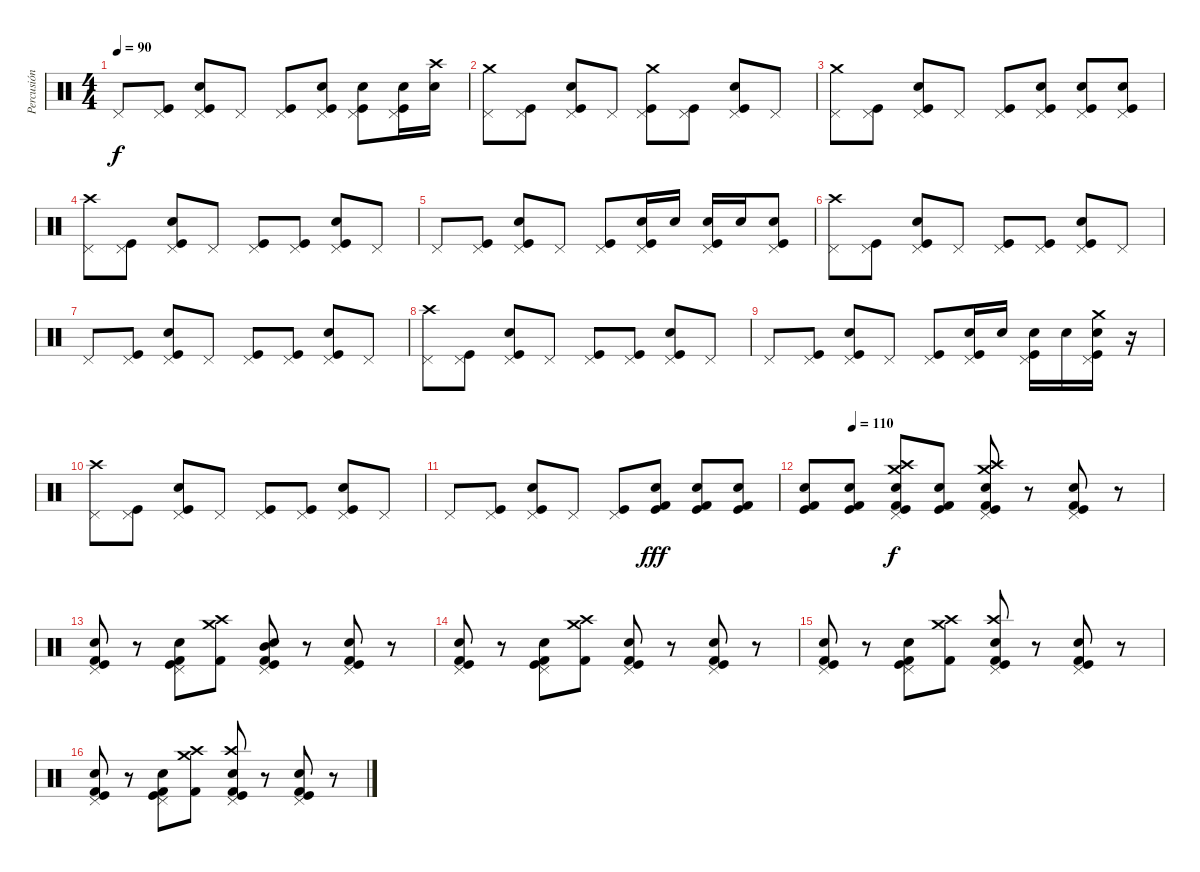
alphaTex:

\track ("Percusión" "Percusión") {instrument percussion}
\staff {score}
\articulation defaults
\ts (4 4)
\tempo 90
\clef neutral
\ks c "Pedal Hi-Hat (hit)".8{dy f}
("Pedal Hi-Hat (hit)" "Kick (hit)").8 ("Pedal Hi-Hat (hit)" "Kick (hit)" "Snare (hit) 2").8 "Pedal Hi-Hat (hit)".8 ("Pedal Hi-Hat (hit)" "Kick (hit)").8 ("Pedal Hi-Hat (hit)" "Kick (hit)" "Snare (hit) 2").8 ("Pedal Hi-Hat (hit)" "Kick (hit)" "Snare (hit) 2").8 ("Pedal Hi-Hat (hit)" "Kick (hit)" "Snare (hit) 2").16 ("Crash high (hit)" "Snare (hit) 2").16{balance 4} |
("Pedal Hi-Hat (hit)" "Crash medium (hit)").8{balance 12} ("Pedal Hi-Hat (hit)" "Kick (hit)").8{balance 8} ("Pedal Hi-Hat (hit)" "Kick (hit)" "Snare (hit) 2").8 "Pedal Hi-Hat (hit)".8 ("Pedal Hi-Hat (hit)" "Kick (hit)" "Crash medium (hit)").8{balance 4} ("Pedal Hi-Hat (hit)" "Kick (hit)").8{balance 8} ("Pedal Hi-Hat (hit)" "Kick (hit)" "Snare (hit) 2").8 "Pedal Hi-Hat (hit)".8 |
("Pedal Hi-Hat (hit)" "Crash medium (hit)").8{balance 12} ("Pedal Hi-Hat (hit)" "Kick (hit)").8{balance 8} ("Pedal Hi-Hat (hit)" "Kick (hit)" "Snare (hit) 2").8 "Pedal Hi-Hat (hit)".8 ("Pedal Hi-Hat (hit)" "Kick (hit)").8 ("Pedal Hi-Hat (hit)" "Kick (hit)" "Snare (hit) 2").8 ("Pedal Hi-Hat (hit)" "Kick (hit)" "Snare (hit) 2").8 ("Pedal Hi-Hat (hit)" "Kick (hit)" "Snare (hit) 2").8 |
("Pedal Hi-Hat (hit)" "Crash high (hit)").8{balance 4} ("Pedal Hi-Hat (hit)" "Kick (hit)").8{balance 8} ("Pedal Hi-Hat (hit)" "Kick (hit)" "Snare (hit) 2").8 "Pedal Hi-Hat (hit)".8 ("Pedal Hi-Hat (hit)" "Kick (hit)").8 ("Pedal Hi-Hat (hit)" "Kick (hit)").8 ("Pedal Hi-Hat (hit)" "Kick (hit)" "Snare (hit) 2").8 "Pedal Hi-Hat (hit)".8 |
"Pedal Hi-Hat (hit)".8 ("Pedal Hi-Hat (hit)" "Kick (hit)").8 ("Pedal Hi-Hat (hit)" "Kick (hit)" "Snare (hit) 2").8 "Pedal Hi-Hat (hit)".8 ("Pedal Hi-Hat (hit)" "Kick (hit)").8 ("Pedal Hi-Hat (hit)" "Kick (hit)" "Snare (hit) 2").16 "Snare (hit) 2".16 ("Pedal Hi-Hat (hit)" "Kick (hit)" "Snare (hit) 2").16 "Snare (hit) 2".16 ("Pedal Hi-Hat (hit)" "Kick (hit)" "Snare (hit) 2").8 |
("Pedal Hi-Hat (hit)" "Crash high (hit)").8{balance 12} ("Pedal Hi-Hat (hit)" "Kick (hit)").8{balance 8} ("Pedal Hi-Hat (hit)" "Kick (hit)" "Snare (hit) 2").8 "Pedal Hi-Hat (hit)".8 ("Pedal Hi-Hat (hit)" "Kick (hit)").8 ("Pedal Hi-Hat (hit)" "Kick (hit)").8 ("Pedal Hi-Hat (hit)" "Kick (hit)" "Snare (hit) 2").8 "Pedal Hi-Hat (hit)".8 |
"Pedal Hi-Hat (hit)".8 ("Pedal Hi-Hat (hit)" "Kick (hit)").8 ("Pedal Hi-Hat (hit)" "Kick (hit)" "Snare (hit) 2").8 "Pedal Hi-Hat (hit)".8 ("Pedal Hi-Hat (hit)" "Kick (hit)").8 ("Pedal Hi-Hat (hit)" "Kick (hit)").8 ("Pedal Hi-Hat (hit)" "Kick (hit)" "Snare (hit) 2").8 "Pedal Hi-Hat (hit)".8 |
("Pedal Hi-Hat (hit)" "Crash high (hit)").8{balance 4} ("Pedal Hi-Hat (hit)" "Kick (hit)").8{balance 8} ("Pedal Hi-Hat (hit)" "Kick (hit)" "Snare (hit) 2").8 "Pedal Hi-Hat (hit)".8 ("Pedal Hi-Hat (hit)" "Kick (hit)").8 ("Pedal Hi-Hat (hit)" "Kick (hit)").8 ("Pedal Hi-Hat (hit)" "Kick (hit)" "Snare (hit) 2").8 "Pedal Hi-Hat (hit)".8 |
"Pedal Hi-Hat (hit)".8 ("Pedal Hi-Hat (hit)" "Kick (hit)").8 ("Pedal Hi-Hat (hit)" "Kick (hit)" "Snare (hit) 2").8 "Pedal Hi-Hat (hit)".8 ("Pedal Hi-Hat (hit)" "Kick (hit)").8 ("Pedal Hi-Hat (hit)" "Kick (hit)" "Snare (hit) 2").16 "Snare (hit) 2".16 ("Pedal Hi-Hat (hit)" "Kick (hit)" "Snare (hit) 2").16 "Snare (hit) 2".16 ("Pedal Hi-Hat (hit)" "Crash medium (hit)" "Kick (hit)" "Snare (hit) 2").16{balance 12} r.16 |
("Pedal Hi-Hat (hit)" "Crash high (hit)").8{balance 4} ("Pedal Hi-Hat (hit)" "Kick (hit)").8{balance 8} ("Pedal Hi-Hat (hit)" "Kick (hit)" "Snare (hit) 2").8 "Pedal Hi-Hat (hit)".8 ("Pedal Hi-Hat (hit)" "Kick (hit)").8 ("Pedal Hi-Hat (hit)" "Kick (hit)").8 ("Pedal Hi-Hat (hit)" "Kick (hit)" "Snare (hit) 2").8 "Pedal Hi-Hat (hit)".8 |
"Pedal Hi-Hat (hit)".8 ("Pedal Hi-Hat (hit)" "Kick (hit)").8 ("Pedal Hi-Hat (hit)" "Kick (hit)" "Snare (hit) 2").8 "Pedal Hi-Hat (hit)".8 ("Pedal Hi-Hat (hit)" "Kick (hit)").8 ("Kick (hit) 2" "Kick (hit)" "Snare (hit) 2").8{dy fff volume 14} ("Kick (hit)" "Kick (hit) 2" "Snare (hit) 2").8 ("Kick (hit)" "Kick (hit) 2" "Snare (hit) 2").8 |
\tempo (110 0.125)
("Kick (hit)" "Kick (hit) 2" "Snare (hit) 2").8 ("Kick (hit)" "Kick (hit) 2" "Snare (hit) 2").8 ("Crash high (hit)" "Crash medium (hit)" "Kick (hit)" "Kick (hit) 2" "Snare (hit) 2" "Pedal Hi-Hat (hit)").8{dy f} ("Kick (hit)" "Kick (hit) 2" "Snare (hit) 2").8 ("Crash high (hit)" "Crash medium (hit)" "Kick (hit)" "Kick (hit) 2" "Snare (hit) 2" "Pedal Hi-Hat (hit)").8 r.8 ("Pedal Hi-Hat (hit)" "Kick (hit)" "Kick (hit) 2" "Snare (hit) 2").8 r.8 |
("Pedal Hi-Hat (hit)" "Kick (hit)" "Kick (hit) 2" "Snare (hit) 2").8 r.8 ("Pedal Hi-Hat (hit)" "Kick (hit)" "Kick (hit) 2" "Snare (hit) 2").8 ("Crash high (hit)" "Crash medium (hit)" "Kick (hit) 2").8 ("Mid Tom (hit)" "Pedal Hi-Hat (hit)" "Kick (hit)" "Kick (hit) 2" "Snare (hit) 2").8 r.8 ("Pedal Hi-Hat (hit)" "Kick (hit)" "Kick (hit) 2" "Snare (hit) 2").8 r.8 |
("Pedal Hi-Hat (hit)" "Kick (hit)" "Kick (hit) 2" "Snare (hit) 2").8 r.8 ("Pedal Hi-Hat (hit)" "Kick (hit)" "Kick (hit) 2" "Snare (hit) 2").8 ("Crash high (hit)" "Crash medium (hit)" "Kick (hit) 2").8 ("Pedal Hi-Hat (hit)" "Kick (hit)" "Kick (hit) 2" "Snare (hit) 2").8 r.8 ("Pedal Hi-Hat (hit)" "Kick (hit)" "Kick (hit) 2" "Snare (hit) 2").8 r.8 |
("Pedal Hi-Hat (hit)" "Kick (hit)" "Kick (hit) 2" "Snare (hit) 2").8 r.8 ("Pedal Hi-Hat (hit)" "Kick (hit)" "Kick (hit) 2" "Snare (hit) 2").8 ("Crash high (hit)" "Crash medium (hit)" "Kick (hit) 2").8 ("Crash high (hit)" "Pedal Hi-Hat (hit)" "Kick (hit)" "Kick (hit) 2" "Snare (hit) 2").8 r.8 ("Pedal Hi-Hat (hit)" "Kick (hit)" "Kick (hit) 2" "Snare (hit) 2").8 r.8 |
("Pedal Hi-Hat (hit)" "Kick (hit)" "Kick (hit) 2" "Snare (hit) 2").8 r.8 ("Pedal Hi-Hat (hit)" "Kick (hit)" "Kick (hit) 2" "Snare (hit) 2").8 ("Crash high (hit)" "Crash medium (hit)" "Kick (hit) 2").8 ("Crash high (hit)" "Pedal Hi-Hat (hit)" "Kick (hit)" "Kick (hit) 2" "Snare (hit) 2").8 r.8 ("Pedal Hi-Hat (hit)" "Kick (hit)" "Kick (hit) 2" "Snare (hit) 2").8 r.8
